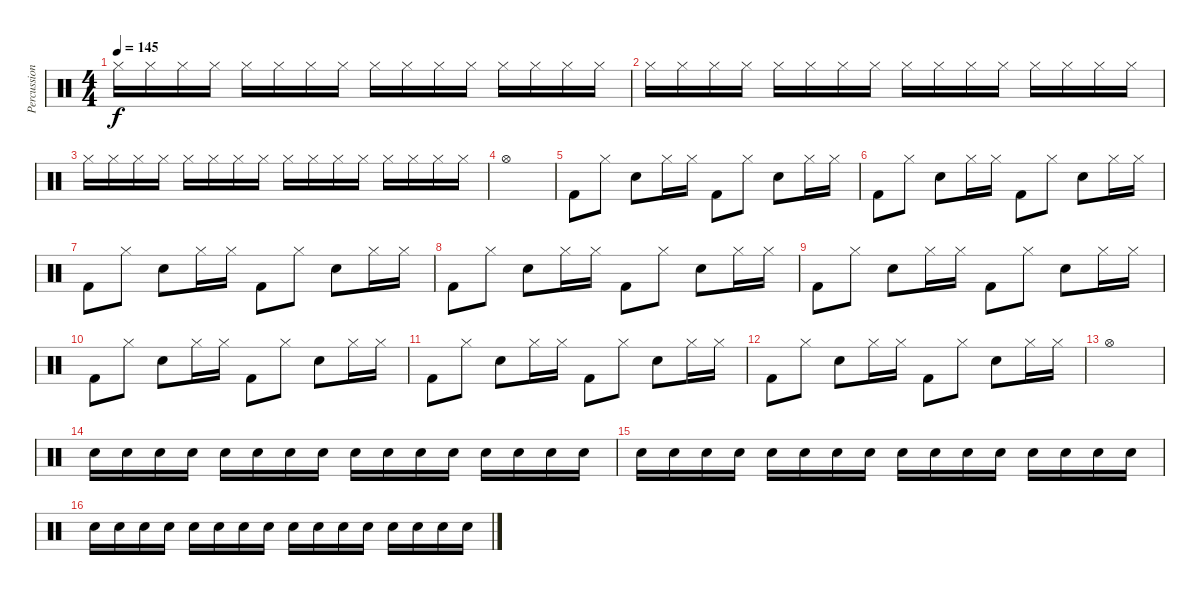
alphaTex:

\track ("Percussion" "Percussion") {instrument percussion}
\staff {score}
\articulation defaults
\ts (4 4)
\tempo 145
\clef neutral
\ks c "Hi-Hat (closed)".16{dy f} "Hi-Hat (closed)".16 "Hi-Hat (closed)".16 "Hi-Hat (closed)".16 "Hi-Hat (closed)".16 "Hi-Hat (closed)".16 "Hi-Hat (closed)".16 "Hi-Hat (closed)".16 "Hi-Hat (closed)".16 "Hi-Hat (closed)".16 "Hi-Hat (closed)".16 "Hi-Hat (closed)".16 "Hi-Hat (closed)".16 "Hi-Hat (closed)".16 "Hi-Hat (closed)".16 "Hi-Hat (closed)".16
|
"Hi-Hat (closed)".16 "Hi-Hat (closed)".16 "Hi-Hat (closed)".16 "Hi-Hat (closed)".16 "Hi-Hat (closed)".16 "Hi-Hat (closed)".16 "Hi-Hat (closed)".16 "Hi-Hat (closed)".16 "Hi-Hat (closed)".16 "Hi-Hat (closed)".16 "Hi-Hat (closed)".16 "Hi-Hat (closed)".16 "Hi-Hat (closed)".16 "Hi-Hat (closed)".16 "Hi-Hat (closed)".16 "Hi-Hat (closed)".16 |
"Hi-Hat (closed)".16 "Hi-Hat (closed)".16 "Hi-Hat (closed)".16 "Hi-Hat (closed)".16 "Hi-Hat (closed)".16 "Hi-Hat (closed)".16 "Hi-Hat (closed)".16 "Hi-Hat (closed)".16 "Hi-Hat (closed)".16 "Hi-Hat (closed)".16 "Hi-Hat (closed)".16 "Hi-Hat (closed)".16 "Hi-Hat (closed)".16 "Hi-Hat (closed)".16 "Hi-Hat (closed)".16 "Hi-Hat (closed)".16 |
"Hi-Hat (open)".1 |
"Kick (hit) 2".8 "Hi-Hat (closed)".8 "Electric Snare (hit)".8 "Hi-Hat (closed)".16 "Hi-Hat (closed)".16 "Kick (hit) 2".8 "Hi-Hat (closed)".8 "Electric Snare (hit)".8 "Hi-Hat (closed)".16 "Hi-Hat (closed)".16 |
"Kick (hit) 2".8 "Hi-Hat (closed)".8 "Electric Snare (hit)".8 "Hi-Hat (closed)".16 "Hi-Hat (closed)".16 "Kick (hit) 2".8 "Hi-Hat (closed)".8 "Electric Snare (hit)".8 "Hi-Hat (closed)".16 "Hi-Hat (closed)".16 |
"Kick (hit) 2".8 "Hi-Hat (closed)".8 "Electric Snare (hit)".8 "Hi-Hat (closed)".16 "Hi-Hat (closed)".16 "Kick (hit) 2".8 "Hi-Hat (closed)".8 "Electric Snare (hit)".8 "Hi-Hat (closed)".16 "Hi-Hat (closed)".16 |
"Kick (hit) 2".8 "Hi-Hat (closed)".8 "Electric Snare (hit)".8 "Hi-Hat (closed)".16 "Hi-Hat (closed)".16 "Kick (hit) 2".8 "Hi-Hat (closed)".8 "Electric Snare (hit)".8 "Hi-Hat (closed)".16 "Hi-Hat (closed)".16 |
"Kick (hit) 2".8 "Hi-Hat (closed)".8 "Electric Snare (hit)".8 "Hi-Hat (closed)".16 "Hi-Hat (closed)".16 "Kick (hit) 2".8 "Hi-Hat (closed)".8 "Electric Snare (hit)".8 "Hi-Hat (closed)".16 "Hi-Hat (closed)".16 |
"Kick (hit) 2".8 "Hi-Hat (closed)".8 "Electric Snare (hit)".8 "Hi-Hat (closed)".16 "Hi-Hat (closed)".16 "Kick (hit) 2".8 "Hi-Hat (closed)".8 "Electric Snare (hit)".8 "Hi-Hat (closed)".16 "Hi-Hat (closed)".16 |
"Kick (hit) 2".8 "Hi-Hat (closed)".8 "Electric Snare (hit)".8 "Hi-Hat (closed)".16 "Hi-Hat (closed)".16 "Kick (hit) 2".8 "Hi-Hat (closed)".8 "Electric Snare (hit)".8 "Hi-Hat (closed)".16 "Hi-Hat (closed)".16 |
"Kick (hit) 2".8 "Hi-Hat (closed)".8 "Electric Snare (hit)".8 "Hi-Hat (closed)".16 "Hi-Hat (closed)".16 "Kick (hit) 2".8 "Hi-Hat (closed)".8 "Electric Snare (hit)".8 "Hi-Hat (closed)".16 "Hi-Hat (closed)".16 |
"Hi-Hat (open)".1 |
"Electric Snare (hit)".16 "Electric Snare (hit)".16 "Electric Snare (hit)".16 "Electric Snare (hit)".16 "Electric Snare (hit)".16 "Electric Snare (hit)".16 "Electric Snare (hit)".16 "Electric Snare (hit)".16 "Electric Snare (hit)".16 "Electric Snare (hit)".16 "Electric Snare (hit)".16 "Electric Snare (hit)".16 "Electric Snare (hit)".16 "Electric Snare (hit)".16 "Electric Snare (hit)".16 "Electric Snare (hit)".16 |
"Electric Snare (hit)".16 "Electric Snare (hit)".16 "Electric Snare (hit)".16 "Electric Snare (hit)".16 "Electric Snare (hit)".16 "Electric Snare (hit)".16 "Electric Snare (hit)".16 "Electric Snare (hit)".16 "Electric Snare (hit)".16 "Electric Snare (hit)".16 "Electric Snare (hit)".16 "Electric Snare (hit)".16 "Electric Snare (hit)".16 "Electric Snare (hit)".16 "Electric Snare (hit)".16 "Electric Snare (hit)".16 |
"Electric Snare (hit)".16 "Electric Snare (hit)".16 "Electric Snare (hit)".16 "Electric Snare (hit)".16 "Electric Snare (hit)".16 "Electric Snare (hit)".16 "Electric Snare (hit)".16 "Electric Snare (hit)".16 "Electric Snare (hit)".16 "Electric Snare (hit)".16 "Electric Snare (hit)".16 "Electric Snare (hit)".16 "Electric Snare (hit)".16 "Electric Snare (hit)".16 "Electric Snare (hit)".16 "Electric Snare (hit)".16
